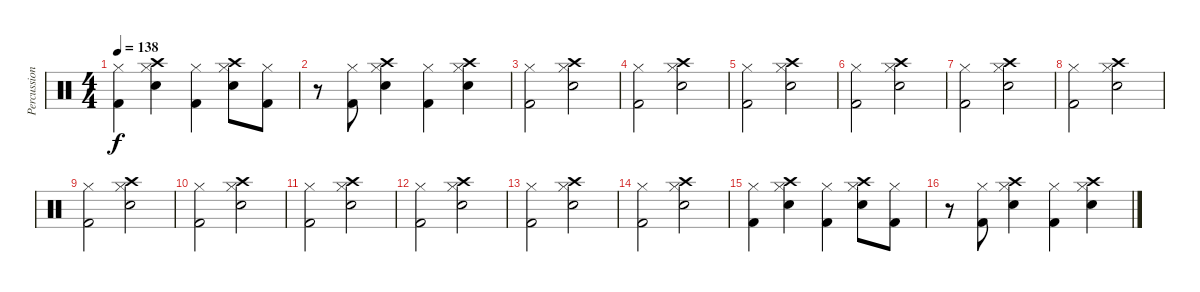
\track ("Percussion" "Percussion") {instrument percussion}
\staff {score}
\articulation defaults
\ts (4 4)
\tempo 138
\clef neutral
\ks c
("Hi-Hat (closed)" "Kick (hit) 2").4{dy f} ("Hi-Hat (closed)" "Crash high (hit)" "Electric Snare (hit)").4 ("Hi-Hat (closed)" "Kick (hit) 2").4 ("Hi-Hat (closed)" "Crash high (hit)" "Electric Snare (hit)").8 ("Hi-Hat (closed)" "Kick (hit) 2").8 |
r.8 ("Hi-Hat (closed)" "Kick (hit) 2").8 ("Hi-Hat (closed)" "Crash high (hit)" "Electric Snare (hit)").4 ("Hi-Hat (closed)" "Kick (hit) 2").4 ("Hi-Hat (closed)" "Crash high (hit)" "Electric Snare (hit)").4 |
("Hi-Hat (closed)" "Kick (hit) 2").2 ("Hi-Hat (closed)" "Crash high (hit)" "Electric Snare (hit)").2 |
("Hi-Hat (closed)" "Kick (hit) 2").2 ("Hi-Hat (closed)" "Crash high (hit)" "Electric Snare (hit)").2 |
("Hi-Hat (closed)" "Kick (hit) 2").2 ("Hi-Hat (closed)" "Crash high (hit)" "Electric Snare (hit)").2 |
("Hi-Hat (closed)" "Kick (hit) 2").2 ("Hi-Hat (closed)" "Crash high (hit)" "Electric Snare (hit)").2 |
("Hi-Hat (closed)" "Kick (hit) 2").2 ("Hi-Hat (closed)" "Crash high (hit)" "Electric Snare (hit)").2 |
("Hi-Hat (closed)" "Kick (hit) 2").2 ("Hi-Hat (closed)" "Crash high (hit)" "Electric Snare (hit)").2 |
("Hi-Hat (closed)" "Kick (hit) 2").2 ("Hi-Hat (closed)" "Crash high (hit)" "Electric Snare (hit)").2 |
("Hi-Hat (closed)" "Kick (hit) 2").2 ("Hi-Hat (closed)" "Crash high (hit)" "Electric Snare (hit)").2 |
("Hi-Hat (closed)" "Kick (hit) 2").2 ("Hi-Hat (closed)" "Crash high (hit)" "Electric Snare (hit)").2 |
("Hi-Hat (closed)" "Kick (hit) 2").2 ("Hi-Hat (closed)" "Crash high (hit)" "Electric Snare (hit)").2 |
("Hi-Hat (closed)" "Kick (hit) 2").2 ("Hi-Hat (closed)" "Crash high (hit)" "Electric Snare (hit)").2 |
("Hi-Hat (closed)" "Kick (hit) 2").2 ("Hi-Hat (closed)" "Crash high (hit)" "Electric Snare (hit)").2 |
("Hi-Hat (closed)" "Kick (hit) 2").4 ("Hi-Hat (closed)" "Crash high (hit)" "Electric Snare (hit)").4 ("Hi-Hat (closed)" "Kick (hit) 2").4 ("Hi-Hat (closed)" "Crash high (hit)" "Electric Snare (hit)").8 ("Hi-Hat (closed)" "Kick (hit) 2").8 |
r.8 ("Hi-Hat (closed)" "Kick (hit) 2").8 ("Hi-Hat (closed)" "Crash high (hit)" "Electric Snare (hit)").4 ("Hi-Hat (closed)" "Kick (hit) 2").4 ("Hi-Hat (closed)" "Crash high (hit)" "Electric Snare (hit)").4
